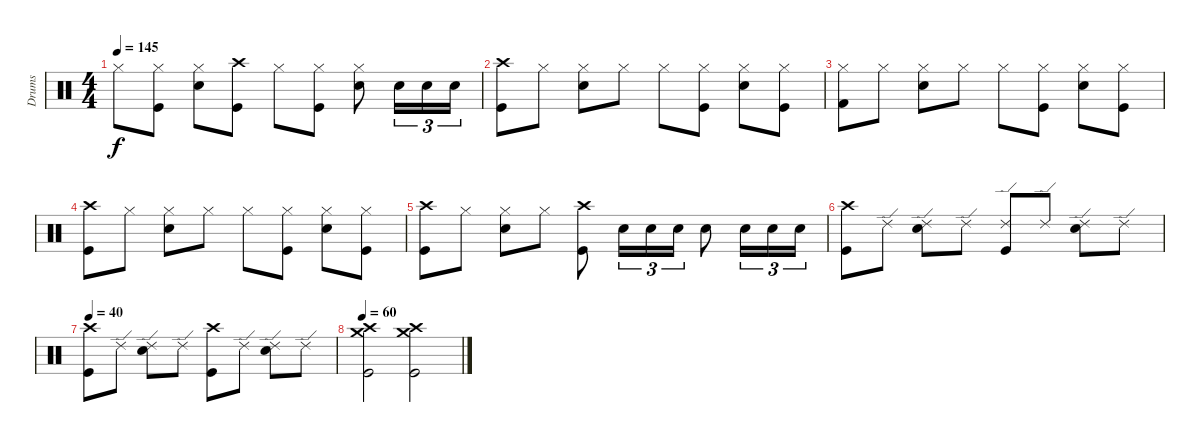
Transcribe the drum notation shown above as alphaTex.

\track ("Drums" "Drums") {instrument percussion}
\staff {score}
\articulation defaults
\ts (4 4)
\tempo 145
\clef neutral
\ks c "Hi-Hat (closed)".8{dy f}
("Hi-Hat (closed)" "Kick (hit)").8 ("Hi-Hat (closed)" "Electric Snare (hit)").8 ("Crash high (hit)" "Kick (hit)").8 "Hi-Hat (closed)".8 ("Hi-Hat (closed)" "Kick (hit)").8 ("Hi-Hat (closed)" "Electric Snare (hit)").8 "Electric Snare (hit)".16{tu (3 2)} "Electric Snare (hit)".16{tu (3 2)} "Electric Snare (hit)".16{tu (3 2)} |
("Crash high (hit)" "Kick (hit)").8 "Hi-Hat (closed)".8 ("Hi-Hat (closed)" "Electric Snare (hit)").8 "Hi-Hat (closed)".8 "Hi-Hat (closed)".8 ("Hi-Hat (closed)" "Kick (hit)").8 ("Hi-Hat (closed)" "Electric Snare (hit)").8 ("Hi-Hat (closed)" "Kick (hit)").8 |
("Hi-Hat (closed)" "Kick (hit) 2").8 "Hi-Hat (closed)".8 ("Hi-Hat (closed)" "Electric Snare (hit)").8 "Hi-Hat (closed)".8 "Hi-Hat (closed)".8 ("Hi-Hat (closed)" "Kick (hit)").8 ("Hi-Hat (closed)" "Electric Snare (hit)").8 ("Hi-Hat (closed)" "Kick (hit)").8 |
("Crash high (hit)" "Kick (hit)").8 "Hi-Hat (closed)".8 ("Hi-Hat (closed)" "Electric Snare (hit)").8 "Hi-Hat (closed)".8 "Hi-Hat (closed)".8 ("Hi-Hat (closed)" "Kick (hit)").8 ("Hi-Hat (closed)" "Electric Snare (hit)").8 ("Hi-Hat (closed)" "Kick (hit)").8 |
("Crash high (hit)" "Kick (hit)").8 "Hi-Hat (closed)".8 ("Hi-Hat (closed)" "Electric Snare (hit)").8 "Hi-Hat (closed)".8 ("Crash high (hit)" "Kick (hit)").8 "Electric Snare (hit)".16{tu (3 2)} "Electric Snare (hit)".16{tu (3 2)} "Electric Snare (hit)".16{tu (3 2)} "Electric Snare (hit)".8 "Electric Snare (hit)".16{tu (3 2)} "Electric Snare (hit)".16{tu (3 2)} "Electric Snare (hit)".16{tu (3 2)} |
("Crash high (hit)" "Kick (hit)").8 "Ride (edge) 2".8 ("Ride (edge) 2" "Electric Snare (hit)").8 "Ride (edge) 2".8 ("Ride (edge) 2" "Kick (hit)").8 "Ride (edge) 2".8 ("Ride (edge) 2" "Electric Snare (hit)").8 "Ride (edge) 2".8 |
\tempo 40
("Crash high (hit)" "Kick (hit)").8 "Ride (edge) 2".8 ("Ride (edge) 2" "Electric Snare (hit)").8 "Ride (edge) 2".8 ("Crash high (hit)" "Kick (hit)").8 "Ride (edge) 2".8 ("Ride (edge) 2" "Electric Snare (hit)").8 "Ride (edge) 2".8 |
\tempo 60
("Crash high (hit)" "Crash medium (hit)" "Kick (hit)").2 ("Crash high (hit)" "Crash medium (hit)" "Kick (hit)").2
